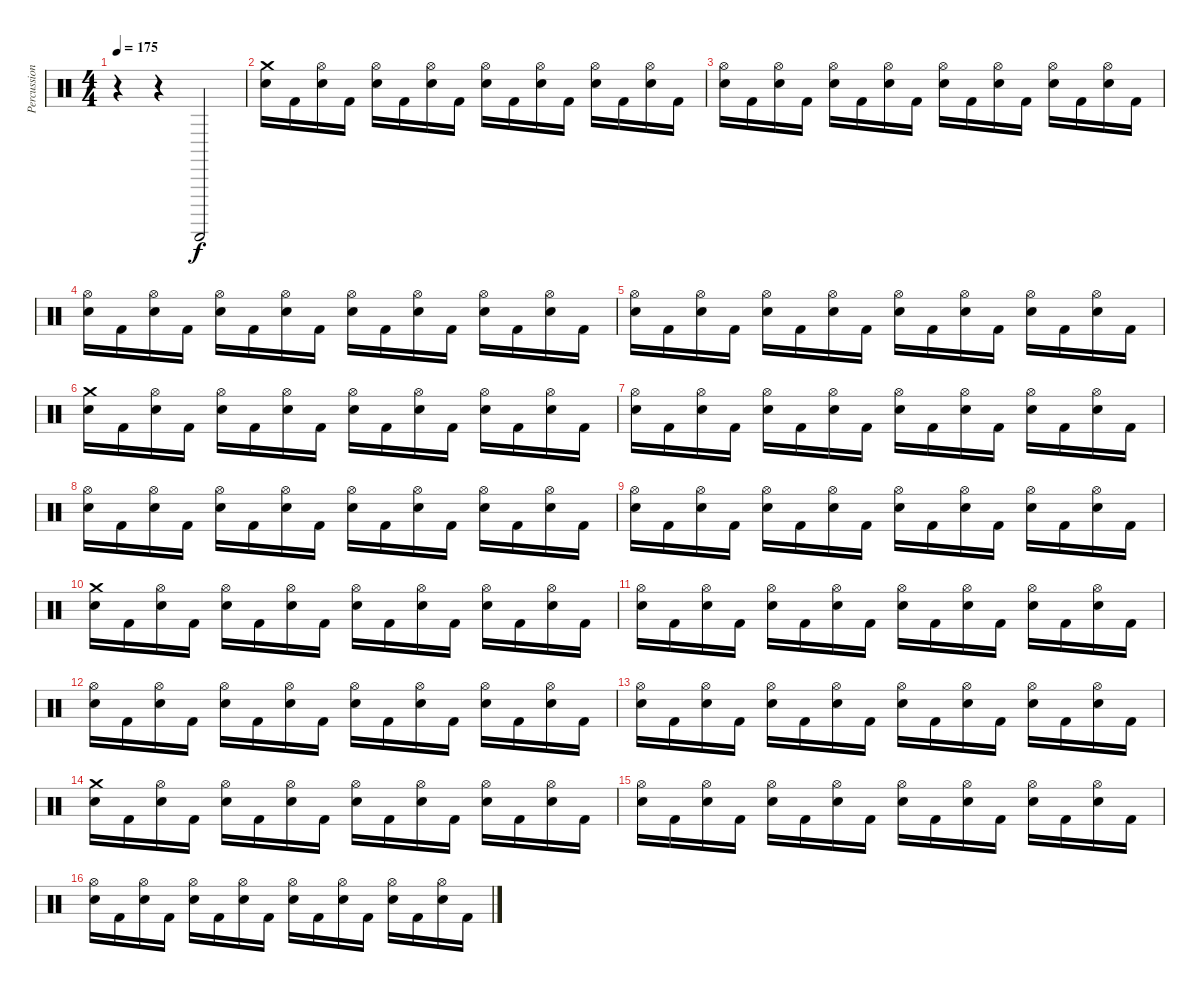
\track ("Percussion" "Percussion") {instrument percussion}
\staff {score}
\articulation defaults
\ts (4 4)
\tempo 175
\clef neutral
\ks c
r.4{dy f} r.4 "Guiro (scrap-return)".2 |
("Crash medium (hit)" "Snare (hit) 2").16 "Kick (hit) 2".16 ("Hi-Hat (open)" "Snare (hit) 2").16 "Kick (hit) 2".16 ("Hi-Hat (open)" "Snare (hit) 2").16 "Kick (hit) 2".16 ("Hi-Hat (open)" "Snare (hit) 2").16 "Kick (hit) 2".16 ("Hi-Hat (open)" "Snare (hit) 2").16 "Kick (hit) 2".16 ("Hi-Hat (open)" "Snare (hit) 2").16 "Kick (hit) 2".16 ("Hi-Hat (open)" "Snare (hit) 2").16 "Kick (hit) 2".16 ("Hi-Hat (open)" "Snare (hit) 2").16 "Kick (hit) 2".16 |
("Hi-Hat (open)" "Snare (hit) 2").16 "Kick (hit) 2".16 ("Hi-Hat (open)" "Snare (hit) 2").16 "Kick (hit) 2".16 ("Hi-Hat (open)" "Snare (hit) 2").16 "Kick (hit) 2".16 ("Hi-Hat (open)" "Snare (hit) 2").16 "Kick (hit) 2".16 ("Hi-Hat (open)" "Snare (hit) 2").16 "Kick (hit) 2".16 ("Hi-Hat (open)" "Snare (hit) 2").16 "Kick (hit) 2".16 ("Hi-Hat (open)" "Snare (hit) 2").16 "Kick (hit) 2".16 ("Hi-Hat (open)" "Snare (hit) 2").16 "Kick (hit) 2".16 |
("Hi-Hat (open)" "Snare (hit) 2").16 "Kick (hit) 2".16 ("Hi-Hat (open)" "Snare (hit) 2").16 "Kick (hit) 2".16 ("Hi-Hat (open)" "Snare (hit) 2").16 "Kick (hit) 2".16 ("Hi-Hat (open)" "Snare (hit) 2").16 "Kick (hit) 2".16 ("Hi-Hat (open)" "Snare (hit) 2").16 "Kick (hit) 2".16 ("Hi-Hat (open)" "Snare (hit) 2").16 "Kick (hit) 2".16 ("Hi-Hat (open)" "Snare (hit) 2").16 "Kick (hit) 2".16 ("Hi-Hat (open)" "Snare (hit) 2").16 "Kick (hit) 2".16 |
("Hi-Hat (open)" "Snare (hit) 2").16 "Kick (hit) 2".16 ("Hi-Hat (open)" "Snare (hit) 2").16 "Kick (hit) 2".16 ("Hi-Hat (open)" "Snare (hit) 2").16 "Kick (hit) 2".16 ("Hi-Hat (open)" "Snare (hit) 2").16 "Kick (hit) 2".16 ("Hi-Hat (open)" "Snare (hit) 2").16 "Kick (hit) 2".16 ("Hi-Hat (open)" "Snare (hit) 2").16 "Kick (hit) 2".16 ("Hi-Hat (open)" "Snare (hit) 2").16 "Kick (hit) 2".16 ("Hi-Hat (open)" "Snare (hit) 2").16 "Kick (hit) 2".16 |
("Crash medium (hit)" "Snare (hit) 2").16 "Kick (hit) 2".16 ("Hi-Hat (open)" "Snare (hit) 2").16 "Kick (hit) 2".16 ("Hi-Hat (open)" "Snare (hit) 2").16 "Kick (hit) 2".16 ("Hi-Hat (open)" "Snare (hit) 2").16 "Kick (hit) 2".16 ("Hi-Hat (open)" "Snare (hit) 2").16 "Kick (hit) 2".16 ("Hi-Hat (open)" "Snare (hit) 2").16 "Kick (hit) 2".16 ("Hi-Hat (open)" "Snare (hit) 2").16 "Kick (hit) 2".16 ("Hi-Hat (open)" "Snare (hit) 2").16 "Kick (hit) 2".16 |
("Hi-Hat (open)" "Snare (hit) 2").16 "Kick (hit) 2".16 ("Hi-Hat (open)" "Snare (hit) 2").16 "Kick (hit) 2".16 ("Hi-Hat (open)" "Snare (hit) 2").16 "Kick (hit) 2".16 ("Hi-Hat (open)" "Snare (hit) 2").16 "Kick (hit) 2".16 ("Hi-Hat (open)" "Snare (hit) 2").16 "Kick (hit) 2".16 ("Hi-Hat (open)" "Snare (hit) 2").16 "Kick (hit) 2".16 ("Hi-Hat (open)" "Snare (hit) 2").16 "Kick (hit) 2".16 ("Hi-Hat (open)" "Snare (hit) 2").16 "Kick (hit) 2".16 |
("Hi-Hat (open)" "Snare (hit) 2").16 "Kick (hit) 2".16 ("Hi-Hat (open)" "Snare (hit) 2").16 "Kick (hit) 2".16 ("Hi-Hat (open)" "Snare (hit) 2").16 "Kick (hit) 2".16 ("Hi-Hat (open)" "Snare (hit) 2").16 "Kick (hit) 2".16 ("Hi-Hat (open)" "Snare (hit) 2").16 "Kick (hit) 2".16 ("Hi-Hat (open)" "Snare (hit) 2").16 "Kick (hit) 2".16 ("Hi-Hat (open)" "Snare (hit) 2").16 "Kick (hit) 2".16 ("Hi-Hat (open)" "Snare (hit) 2").16 "Kick (hit) 2".16 |
("Hi-Hat (open)" "Snare (hit) 2").16 "Kick (hit) 2".16 ("Hi-Hat (open)" "Snare (hit) 2").16 "Kick (hit) 2".16 ("Hi-Hat (open)" "Snare (hit) 2").16 "Kick (hit) 2".16 ("Hi-Hat (open)" "Snare (hit) 2").16 "Kick (hit) 2".16 ("Hi-Hat (open)" "Snare (hit) 2").16 "Kick (hit) 2".16 ("Hi-Hat (open)" "Snare (hit) 2").16 "Kick (hit) 2".16 ("Hi-Hat (open)" "Snare (hit) 2").16 "Kick (hit) 2".16 ("Hi-Hat (open)" "Snare (hit) 2").16 "Kick (hit) 2".16 |
("Crash medium (hit)" "Snare (hit) 2").16 "Kick (hit) 2".16 ("Hi-Hat (open)" "Snare (hit) 2").16 "Kick (hit) 2".16 ("Hi-Hat (open)" "Snare (hit) 2").16 "Kick (hit) 2".16 ("Hi-Hat (open)" "Snare (hit) 2").16 "Kick (hit) 2".16 ("Hi-Hat (open)" "Snare (hit) 2").16 "Kick (hit) 2".16 ("Hi-Hat (open)" "Snare (hit) 2").16 "Kick (hit) 2".16 ("Hi-Hat (open)" "Snare (hit) 2").16 "Kick (hit) 2".16 ("Hi-Hat (open)" "Snare (hit) 2").16 "Kick (hit) 2".16 |
("Hi-Hat (open)" "Snare (hit) 2").16 "Kick (hit) 2".16 ("Hi-Hat (open)" "Snare (hit) 2").16 "Kick (hit) 2".16 ("Hi-Hat (open)" "Snare (hit) 2").16 "Kick (hit) 2".16 ("Hi-Hat (open)" "Snare (hit) 2").16 "Kick (hit) 2".16 ("Hi-Hat (open)" "Snare (hit) 2").16 "Kick (hit) 2".16 ("Hi-Hat (open)" "Snare (hit) 2").16 "Kick (hit) 2".16 ("Hi-Hat (open)" "Snare (hit) 2").16 "Kick (hit) 2".16 ("Hi-Hat (open)" "Snare (hit) 2").16 "Kick (hit) 2".16 |
("Hi-Hat (open)" "Snare (hit) 2").16 "Kick (hit) 2".16 ("Hi-Hat (open)" "Snare (hit) 2").16 "Kick (hit) 2".16 ("Hi-Hat (open)" "Snare (hit) 2").16 "Kick (hit) 2".16 ("Hi-Hat (open)" "Snare (hit) 2").16 "Kick (hit) 2".16 ("Hi-Hat (open)" "Snare (hit) 2").16 "Kick (hit) 2".16 ("Hi-Hat (open)" "Snare (hit) 2").16 "Kick (hit) 2".16 ("Hi-Hat (open)" "Snare (hit) 2").16 "Kick (hit) 2".16 ("Hi-Hat (open)" "Snare (hit) 2").16 "Kick (hit) 2".16 |
("Hi-Hat (open)" "Snare (hit) 2").16 "Kick (hit) 2".16 ("Hi-Hat (open)" "Snare (hit) 2").16 "Kick (hit) 2".16 ("Hi-Hat (open)" "Snare (hit) 2").16 "Kick (hit) 2".16 ("Hi-Hat (open)" "Snare (hit) 2").16 "Kick (hit) 2".16 ("Hi-Hat (open)" "Snare (hit) 2").16 "Kick (hit) 2".16 ("Hi-Hat (open)" "Snare (hit) 2").16 "Kick (hit) 2".16 ("Hi-Hat (open)" "Snare (hit) 2").16 "Kick (hit) 2".16 ("Hi-Hat (open)" "Snare (hit) 2").16 "Kick (hit) 2".16 |
("Crash medium (hit)" "Snare (hit) 2").16 "Kick (hit) 2".16 ("Hi-Hat (open)" "Snare (hit) 2").16 "Kick (hit) 2".16 ("Hi-Hat (open)" "Snare (hit) 2").16 "Kick (hit) 2".16 ("Hi-Hat (open)" "Snare (hit) 2").16 "Kick (hit) 2".16 ("Hi-Hat (open)" "Snare (hit) 2").16 "Kick (hit) 2".16 ("Hi-Hat (open)" "Snare (hit) 2").16 "Kick (hit) 2".16 ("Hi-Hat (open)" "Snare (hit) 2").16 "Kick (hit) 2".16 ("Hi-Hat (open)" "Snare (hit) 2").16 "Kick (hit) 2".16 |
("Hi-Hat (open)" "Snare (hit) 2").16 "Kick (hit) 2".16 ("Hi-Hat (open)" "Snare (hit) 2").16 "Kick (hit) 2".16 ("Hi-Hat (open)" "Snare (hit) 2").16 "Kick (hit) 2".16 ("Hi-Hat (open)" "Snare (hit) 2").16 "Kick (hit) 2".16 ("Hi-Hat (open)" "Snare (hit) 2").16 "Kick (hit) 2".16 ("Hi-Hat (open)" "Snare (hit) 2").16 "Kick (hit) 2".16 ("Hi-Hat (open)" "Snare (hit) 2").16 "Kick (hit) 2".16 ("Hi-Hat (open)" "Snare (hit) 2").16 "Kick (hit) 2".16 |
("Hi-Hat (open)" "Snare (hit) 2").16 "Kick (hit) 2".16 ("Hi-Hat (open)" "Snare (hit) 2").16 "Kick (hit) 2".16 ("Hi-Hat (open)" "Snare (hit) 2").16 "Kick (hit) 2".16 ("Hi-Hat (open)" "Snare (hit) 2").16 "Kick (hit) 2".16 ("Hi-Hat (open)" "Snare (hit) 2").16 "Kick (hit) 2".16 ("Hi-Hat (open)" "Snare (hit) 2").16 "Kick (hit) 2".16 ("Hi-Hat (open)" "Snare (hit) 2").16 "Kick (hit) 2".16 ("Hi-Hat (open)" "Snare (hit) 2").16 "Kick (hit) 2".16
